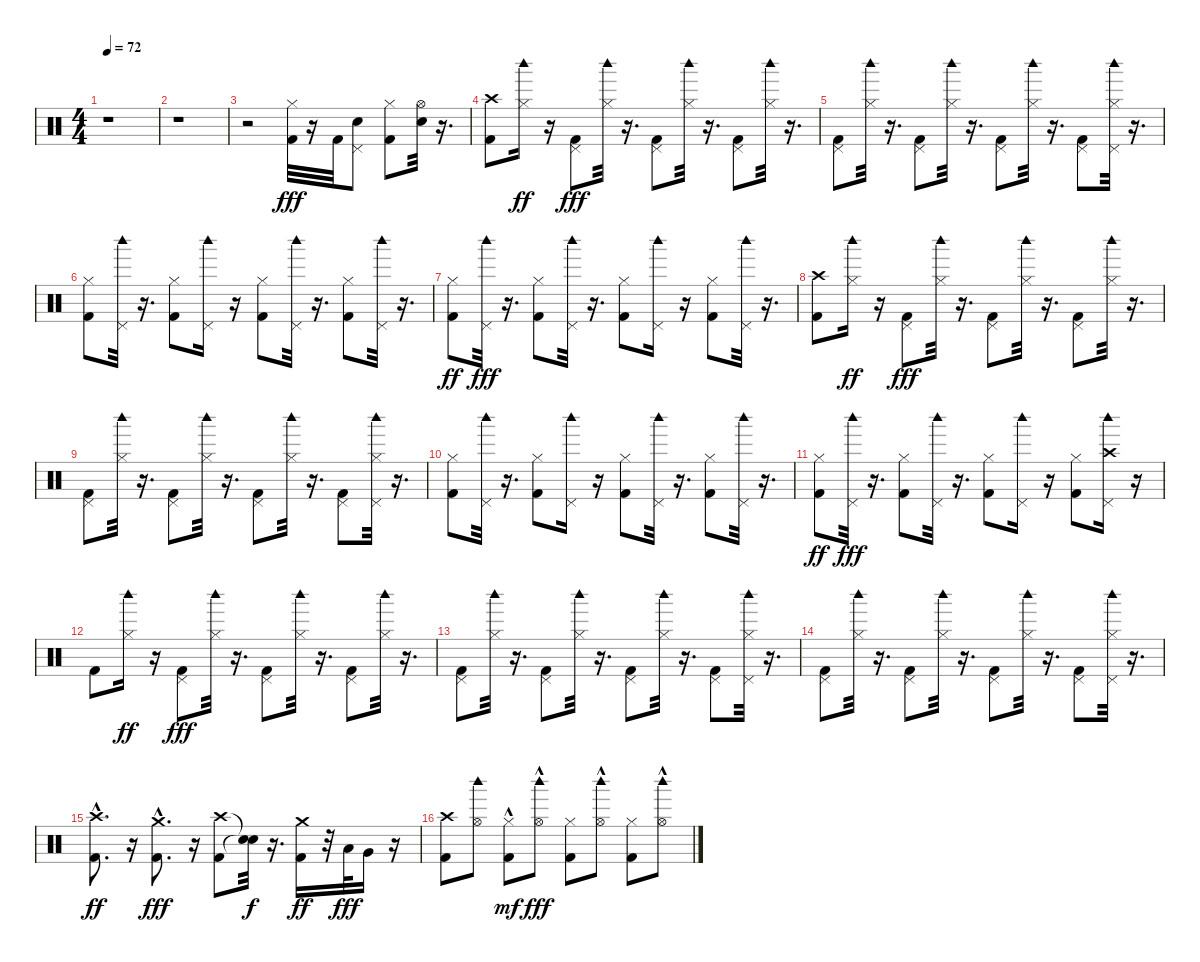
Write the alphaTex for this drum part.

\track "" {instrument percussion}
\staff {score}
\articulation defaults
\ts (4 4)
\tempo 72
\clef neutral
\ks c
r.1{dy fff} |
r.1 |
r.2 ("Kick (hit) 2" "Hi-Hat (closed)").32 r.16 "Kick (hit) 2".32 ("Pedal Hi-Hat (hit)" "Electric Snare (hit)").8 ("Hi-Hat (closed)" "Kick (hit) 2").8 ("Electric Snare (hit)" "Hi-Hat (open)").32 r.16{d} |
("Kick (hit) 2" "Crash high (hit)").8 ("Woodblock high (hit)" "Hi-Hat (closed)").16{dy ff} r.16 ("Pedal Hi-Hat (hit)" "Kick (hit) 2").8{dy fff} ("Hi-Hat (closed)" "Woodblock high (hit)").32 r.16{d} ("Pedal Hi-Hat (hit)" "Kick (hit) 2").8 ("Hi-Hat (closed)" "Woodblock high (hit)").32 r.16{d} ("Pedal Hi-Hat (hit)" "Kick (hit) 2").8 ("Hi-Hat (closed)" "Woodblock high (hit)").32 r.16{d} |
("Pedal Hi-Hat (hit)" "Kick (hit) 2").8 ("Hi-Hat (closed)" "Woodblock high (hit)").32 r.16{d} ("Pedal Hi-Hat (hit)" "Kick (hit) 2").8 ("Hi-Hat (closed)" "Woodblock high (hit)").32 r.16{d} ("Pedal Hi-Hat (hit)" "Kick (hit) 2").8 ("Hi-Hat (closed)" "Woodblock high (hit)").32 r.16{d} ("Pedal Hi-Hat (hit)" "Kick (hit) 2").8 ("Hi-Hat (closed)" "Pedal Hi-Hat (hit)" "Woodblock high (hit)").32 r.16{d} |
("Hi-Hat (closed)" "Kick (hit) 2").8 ("Pedal Hi-Hat (hit)" "Woodblock high (hit)").32 r.16{d} ("Hi-Hat (closed)" "Kick (hit) 2").8 ("Pedal Hi-Hat (hit)" "Woodblock high (hit)").16 r.16 ("Hi-Hat (closed)" "Kick (hit) 2").8 ("Pedal Hi-Hat (hit)" "Woodblock high (hit)").32 r.16{d} ("Hi-Hat (closed)" "Kick (hit) 2").8 ("Pedal Hi-Hat (hit)" "Woodblock high (hit)").32 r.16{d} |
("Kick (hit) 2" "Hi-Hat (closed)").8{dy ff} ("Pedal Hi-Hat (hit)" "Woodblock high (hit)").32{dy fff} r.16{d} ("Hi-Hat (closed)" "Kick (hit) 2").8 ("Pedal Hi-Hat (hit)" "Woodblock high (hit)").32 r.16{d} ("Hi-Hat (closed)" "Kick (hit) 2").8 ("Pedal Hi-Hat (hit)" "Woodblock high (hit)").16 r.16 ("Hi-Hat (closed)" "Kick (hit) 2").8 ("Pedal Hi-Hat (hit)" "Woodblock high (hit)").32 r.16{d} |
("Kick (hit) 2" "Crash high (hit)").8 ("Woodblock high (hit)" "Hi-Hat (closed)").16{dy ff} r.16 ("Pedal Hi-Hat (hit)" "Kick (hit) 2").8{dy fff} ("Hi-Hat (closed)" "Woodblock high (hit)").32 r.16{d} ("Pedal Hi-Hat (hit)" "Kick (hit) 2").8 ("Hi-Hat (closed)" "Woodblock high (hit)").32 r.16{d} ("Pedal Hi-Hat (hit)" "Kick (hit) 2").8 ("Hi-Hat (closed)" "Woodblock high (hit)").32 r.16{d} |
("Pedal Hi-Hat (hit)" "Kick (hit) 2").8 ("Hi-Hat (closed)" "Woodblock high (hit)").32 r.16{d} ("Pedal Hi-Hat (hit)" "Kick (hit) 2").8 ("Hi-Hat (closed)" "Woodblock high (hit)").32 r.16{d} ("Pedal Hi-Hat (hit)" "Kick (hit) 2").8 ("Hi-Hat (closed)" "Woodblock high (hit)").32 r.16{d} ("Pedal Hi-Hat (hit)" "Kick (hit) 2").8 ("Hi-Hat (closed)" "Pedal Hi-Hat (hit)" "Woodblock high (hit)").32 r.16{d} |
("Hi-Hat (closed)" "Kick (hit) 2").8 ("Pedal Hi-Hat (hit)" "Woodblock high (hit)").32 r.16{d} ("Hi-Hat (closed)" "Kick (hit) 2").8 ("Pedal Hi-Hat (hit)" "Woodblock high (hit)").16 r.16 ("Hi-Hat (closed)" "Kick (hit) 2").8 ("Pedal Hi-Hat (hit)" "Woodblock high (hit)").32 r.16{d} ("Hi-Hat (closed)" "Kick (hit) 2").8 ("Pedal Hi-Hat (hit)" "Woodblock high (hit)").32 r.16{d} |
("Kick (hit) 2" "Hi-Hat (closed)").8{dy ff} ("Pedal Hi-Hat (hit)" "Woodblock high (hit)").32{dy fff} r.16{d} ("Hi-Hat (closed)" "Kick (hit) 2").8 ("Pedal Hi-Hat (hit)" "Woodblock high (hit)").32 r.16{d} ("Hi-Hat (closed)" "Kick (hit) 2").8 ("Pedal Hi-Hat (hit)" "Woodblock high (hit)").16 r.16 ("Hi-Hat (closed)" "Kick (hit) 2").8 ("Crash high (hit)" "Pedal Hi-Hat (hit)" "Woodblock high (hit)").16 r.16 |
"Kick (hit) 2".8 ("Woodblock high (hit)" "Hi-Hat (closed)").16{dy ff} r.16 ("Pedal Hi-Hat (hit)" "Kick (hit) 2").8{dy fff} ("Hi-Hat (closed)" "Woodblock high (hit)").32 r.16{d} ("Pedal Hi-Hat (hit)" "Kick (hit) 2").8 ("Hi-Hat (closed)" "Woodblock high (hit)").32 r.16{d} ("Pedal Hi-Hat (hit)" "Kick (hit) 2").8 ("Hi-Hat (closed)" "Woodblock high (hit)").32 r.16{d} |
("Pedal Hi-Hat (hit)" "Kick (hit) 2").8 ("Hi-Hat (closed)" "Woodblock high (hit)").32 r.16{d} ("Pedal Hi-Hat (hit)" "Kick (hit) 2").8 ("Hi-Hat (closed)" "Woodblock high (hit)").32 r.16{d} ("Pedal Hi-Hat (hit)" "Kick (hit) 2").8 ("Hi-Hat (closed)" "Woodblock high (hit)").32 r.16{d} ("Pedal Hi-Hat (hit)" "Kick (hit) 2").8 ("Hi-Hat (closed)" "Pedal Hi-Hat (hit)" "Woodblock high (hit)").32 r.16{d} |
("Pedal Hi-Hat (hit)" "Kick (hit) 2").8 ("Hi-Hat (closed)" "Woodblock high (hit)").32 r.16{d} ("Pedal Hi-Hat (hit)" "Kick (hit) 2").8 ("Hi-Hat (closed)" "Woodblock high (hit)").32 r.16{d} ("Pedal Hi-Hat (hit)" "Kick (hit) 2").8 ("Hi-Hat (closed)" "Woodblock high (hit)").32 r.16{d} ("Pedal Hi-Hat (hit)" "Kick (hit) 2").8 ("Hi-Hat (closed)" "Pedal Hi-Hat (hit)" "Woodblock high (hit)").32 r.16{d} |
("Kick (hit) 2"{hac} "Crash high (hit)"{hac}).8{d dy ff} r.16 ("Crash medium (hit)"{hac} "Kick (hit) 2"{hac}).8{d dy fff} r.16 ("Crash high (hit)" "Kick (hit) 2").8 ("Snare (hit)"{t} "Snare (hit)"{t}).32{dy f} r.16{d} ("Crash medium (hit)" "Kick (hit) 2").16{dy ff} r.32 "Low Tom (hit)".32{dy fff} "Very Low Tom (hit)".16 r.16 |
("Crash high (hit)" "Kick (hit) 2").8 ("Hi-Hat (open)" "Woodblock high (hit)").8 ("Kick (hit) 2" "Hi-Hat (closed)"{hac}).8{dy mf} ("Hi-Hat (open)" "Woodblock high (hit)"{hac}).8{dy fff} ("Hi-Hat (closed)" "Kick (hit) 2").8 ("Hi-Hat (open)" "Woodblock high (hit)"{hac}).8 ("Hi-Hat (closed)" "Kick (hit) 2").8 ("Hi-Hat (open)" "Woodblock high (hit)"{hac}).8
